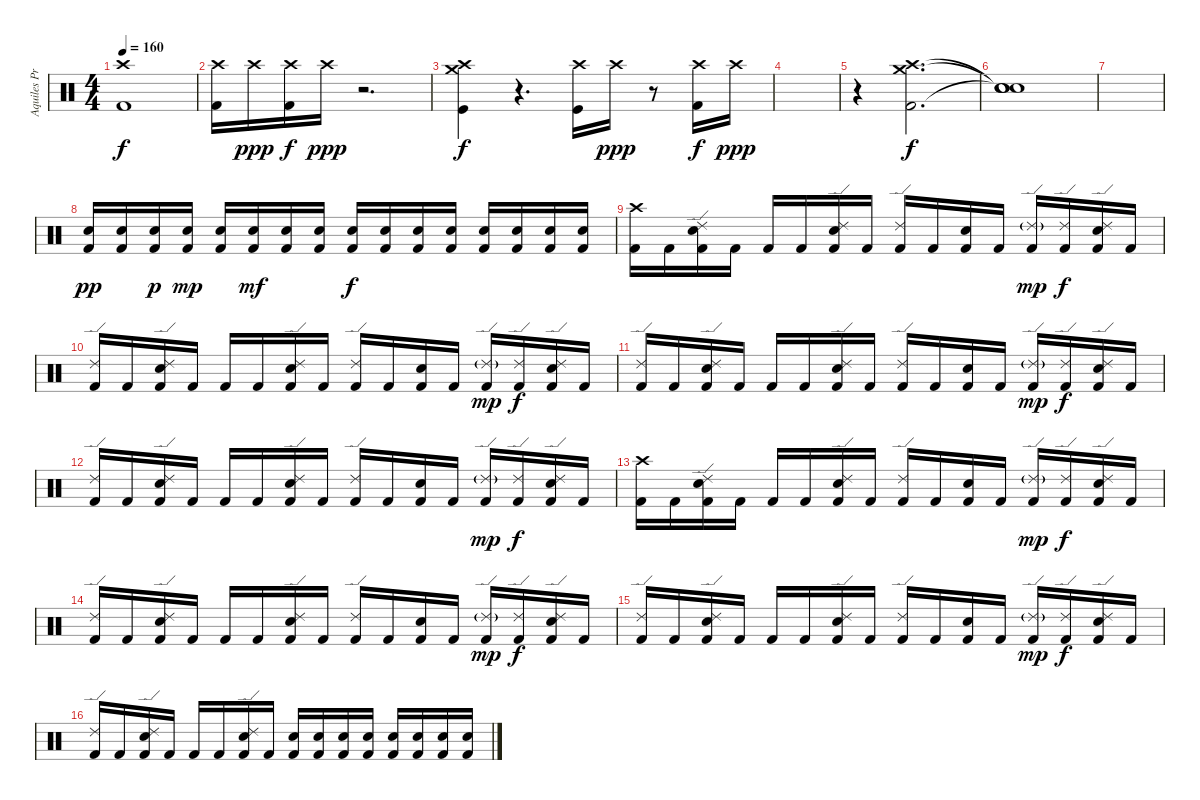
\track ("Aquiles Priester" "Aquiles Pr") {instrument percussion}
\staff {score}
\articulation defaults
\ts (4 4)
\tempo 160
\clef neutral
\ks c
("Crash high (hit)" "Kick (hit) 2").1{dy f} |
("Crash high (hit)" "Kick (hit) 2").16 "Crash high (hit)".16{dy ppp} ("Crash high (hit)" "Kick (hit) 2").16{dy f} "Crash high (hit)".16{dy ppp} r.2{d} |
("Crash medium (hit)" "Crash high (hit)" "Kick (hit)").4{dy f} r.4{d} ("Crash high (hit)" "Kick (hit)").16 "Crash high (hit)".16{dy ppp} r.8 ("Crash high (hit)" "Kick (hit) 2").16{dy f} "Crash high (hit)".16{dy ppp} |
|
r.4 ("Crash medium (hit)" "Crash high (hit)" "Kick (hit) 2").2{d dy f} |
("Snare (hit)"{t} "Snare (hit)"{t} "Snare (hit)"{t} "Snare (hit)").1 |
|
("Electric Snare (hit)" "Kick (hit) 2").16{dy pp} ("Electric Snare (hit)" "Kick (hit) 2").16 ("Electric Snare (hit)" "Kick (hit) 2").16{dy p} ("Electric Snare (hit)" "Kick (hit) 2").16{dy mp} ("Electric Snare (hit)" "Kick (hit) 2").16 ("Electric Snare (hit)" "Kick (hit) 2").16{dy mf} ("Electric Snare (hit)" "Kick (hit) 2").16 ("Electric Snare (hit)" "Kick (hit) 2").16 ("Electric Snare (hit)" "Kick (hit) 2").16{dy f} ("Electric Snare (hit)" "Kick (hit) 2").16 ("Electric Snare (hit)" "Kick (hit) 2").16 ("Electric Snare (hit)" "Kick (hit) 2").16 ("Electric Snare (hit)" "Kick (hit) 2").16 ("Electric Snare (hit)" "Kick (hit) 2").16 ("Electric Snare (hit)" "Kick (hit) 2").16 ("Electric Snare (hit)" "Kick (hit) 2").16 |
("Crash high (hit)" "Kick (hit) 2").16 "Kick (hit) 2".16 ("Ride (edge) 2" "Electric Snare (hit)" "Kick (hit) 2").16 "Kick (hit) 2".16 "Kick (hit) 2".16 "Kick (hit) 2".16 ("Ride (edge) 2" "Electric Snare (hit)" "Kick (hit) 2").16 "Kick (hit) 2".16 ("Ride (edge) 2" "Kick (hit) 2").16 "Kick (hit) 2".16 ("Electric Snare (hit)" "Kick (hit) 2").16 "Kick (hit) 2".16 ("Ride (edge) 2"{g} "Kick (hit) 2").16{dy mp} ("Ride (edge) 2" "Kick (hit) 2").16{dy f} ("Ride (edge) 2" "Electric Snare (hit)" "Kick (hit) 2").16 "Kick (hit) 2".16 |
("Ride (edge) 2" "Kick (hit) 2").16 "Kick (hit) 2".16 ("Ride (edge) 2" "Electric Snare (hit)" "Kick (hit) 2").16 "Kick (hit) 2".16 "Kick (hit) 2".16 "Kick (hit) 2".16 ("Ride (edge) 2" "Electric Snare (hit)" "Kick (hit) 2").16 "Kick (hit) 2".16 ("Ride (edge) 2" "Kick (hit) 2").16 "Kick (hit) 2".16 ("Electric Snare (hit)" "Kick (hit) 2").16 "Kick (hit) 2".16 ("Ride (edge) 2"{g} "Kick (hit) 2").16{dy mp} ("Ride (edge) 2" "Kick (hit) 2").16{dy f} ("Ride (edge) 2" "Electric Snare (hit)" "Kick (hit) 2").16 "Kick (hit) 2".16 |
("Ride (edge) 2" "Kick (hit) 2").16 "Kick (hit) 2".16 ("Ride (edge) 2" "Electric Snare (hit)" "Kick (hit) 2").16 "Kick (hit) 2".16 "Kick (hit) 2".16 "Kick (hit) 2".16 ("Ride (edge) 2" "Electric Snare (hit)" "Kick (hit) 2").16 "Kick (hit) 2".16 ("Ride (edge) 2" "Kick (hit) 2").16 "Kick (hit) 2".16 ("Electric Snare (hit)" "Kick (hit) 2").16 "Kick (hit) 2".16 ("Ride (edge) 2"{g} "Kick (hit) 2").16{dy mp} ("Ride (edge) 2" "Kick (hit) 2").16{dy f} ("Ride (edge) 2" "Electric Snare (hit)" "Kick (hit) 2").16 "Kick (hit) 2".16 |
("Ride (edge) 2" "Kick (hit) 2").16 "Kick (hit) 2".16 ("Ride (edge) 2" "Electric Snare (hit)" "Kick (hit) 2").16 "Kick (hit) 2".16 "Kick (hit) 2".16 "Kick (hit) 2".16 ("Ride (edge) 2" "Electric Snare (hit)" "Kick (hit) 2").16 "Kick (hit) 2".16 ("Ride (edge) 2" "Kick (hit) 2").16 "Kick (hit) 2".16 ("Electric Snare (hit)" "Kick (hit) 2").16 "Kick (hit) 2".16 ("Ride (edge) 2"{g} "Kick (hit) 2").16{dy mp} ("Ride (edge) 2" "Kick (hit) 2").16{dy f} ("Ride (edge) 2" "Electric Snare (hit)" "Kick (hit) 2").16 "Kick (hit) 2".16 |
("Crash high (hit)" "Kick (hit) 2").16 "Kick (hit) 2".16 ("Ride (edge) 2" "Electric Snare (hit)" "Kick (hit) 2").16 "Kick (hit) 2".16 "Kick (hit) 2".16 "Kick (hit) 2".16 ("Ride (edge) 2" "Electric Snare (hit)" "Kick (hit) 2").16 "Kick (hit) 2".16 ("Ride (edge) 2" "Kick (hit) 2").16 "Kick (hit) 2".16 ("Electric Snare (hit)" "Kick (hit) 2").16 "Kick (hit) 2".16 ("Ride (edge) 2"{g} "Kick (hit) 2").16{dy mp} ("Ride (edge) 2" "Kick (hit) 2").16{dy f} ("Ride (edge) 2" "Electric Snare (hit)" "Kick (hit) 2").16 "Kick (hit) 2".16 |
("Ride (edge) 2" "Kick (hit) 2").16 "Kick (hit) 2".16 ("Ride (edge) 2" "Electric Snare (hit)" "Kick (hit) 2").16 "Kick (hit) 2".16 "Kick (hit) 2".16 "Kick (hit) 2".16 ("Ride (edge) 2" "Electric Snare (hit)" "Kick (hit) 2").16 "Kick (hit) 2".16 ("Ride (edge) 2" "Kick (hit) 2").16 "Kick (hit) 2".16 ("Electric Snare (hit)" "Kick (hit) 2").16 "Kick (hit) 2".16 ("Ride (edge) 2"{g} "Kick (hit) 2").16{dy mp} ("Ride (edge) 2" "Kick (hit) 2").16{dy f} ("Ride (edge) 2" "Electric Snare (hit)" "Kick (hit) 2").16 "Kick (hit) 2".16 |
("Ride (edge) 2" "Kick (hit) 2").16 "Kick (hit) 2".16 ("Ride (edge) 2" "Electric Snare (hit)" "Kick (hit) 2").16 "Kick (hit) 2".16 "Kick (hit) 2".16 "Kick (hit) 2".16 ("Ride (edge) 2" "Electric Snare (hit)" "Kick (hit) 2").16 "Kick (hit) 2".16 ("Ride (edge) 2" "Kick (hit) 2").16 "Kick (hit) 2".16 ("Electric Snare (hit)" "Kick (hit) 2").16 "Kick (hit) 2".16 ("Ride (edge) 2"{g} "Kick (hit) 2").16{dy mp} ("Ride (edge) 2" "Kick (hit) 2").16{dy f} ("Ride (edge) 2" "Electric Snare (hit)" "Kick (hit) 2").16 "Kick (hit) 2".16 |
("Ride (edge) 2" "Kick (hit) 2").16 "Kick (hit) 2".16 ("Ride (edge) 2" "Electric Snare (hit)" "Kick (hit) 2").16 "Kick (hit) 2".16 "Kick (hit) 2".16 "Kick (hit) 2".16 ("Ride (edge) 2" "Electric Snare (hit)" "Kick (hit) 2").16 "Kick (hit) 2".16 ("Electric Snare (hit)" "Kick (hit) 2").16 ("Electric Snare (hit)" "Kick (hit) 2").16 ("Electric Snare (hit)" "Kick (hit) 2").16 ("Electric Snare (hit)" "Kick (hit) 2").16 ("Electric Snare (hit)" "Kick (hit) 2").16 ("Electric Snare (hit)" "Kick (hit) 2").16 ("Electric Snare (hit)" "Kick (hit) 2").16 ("Electric Snare (hit)" "Kick (hit) 2").16
